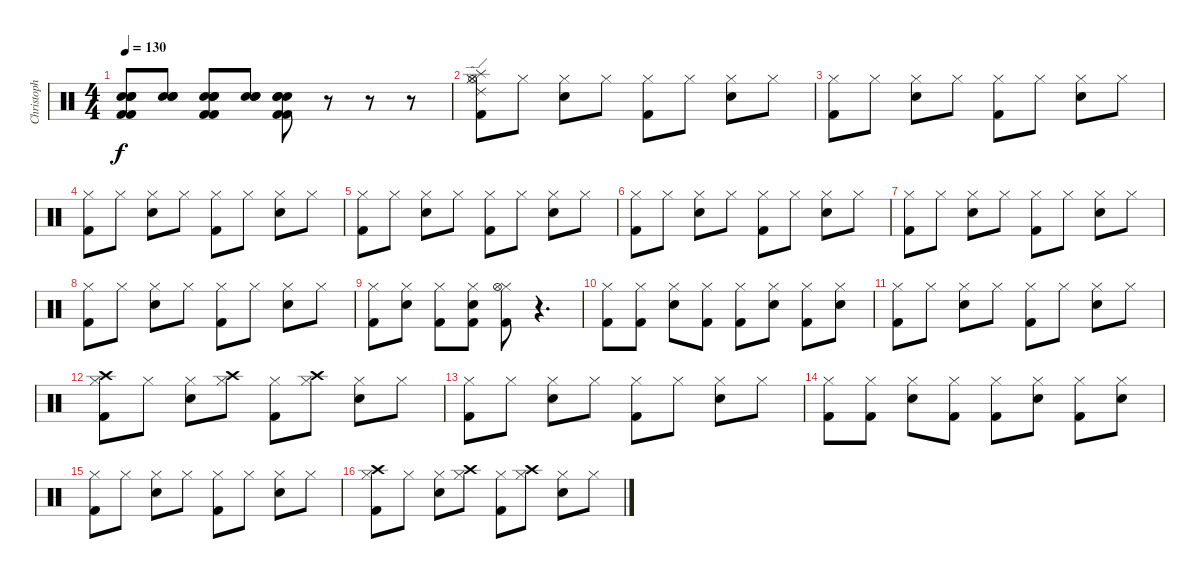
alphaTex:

\track ("Christoph Schneider" "Christoph ") {instrument percussion}
\staff {score}
\articulation defaults
\ts (4 4)
\tempo 130
\clef neutral
\ks c
("Electric Snare (hit)" "Electric Snare (hit)" "Electric Snare (hit)" "Kick (hit) 2" "Kick (hit) 2").8{dy f} ("Electric Snare (hit)" "Electric Snare (hit)" "Electric Snare (hit)").8 ("Electric Snare (hit)" "Electric Snare (hit)" "Electric Snare (hit)" "Kick (hit) 2" "Kick (hit) 2").8 ("Electric Snare (hit)" "Electric Snare (hit)" "Electric Snare (hit)").8 ("Electric Snare (hit)" "Electric Snare (hit)" "Snare (hit) 2" "Kick (hit) 2" "Kick (hit) 2").8 r.8 r.8 r.8 |
("Hi-Hat (closed)" "Splash (hit)" "Ride (edge) 2" "Hi-Hat (open)" "Kick (hit) 2").8 "Hi-Hat (closed)".8 ("Hi-Hat (closed)" "Electric Snare (hit)").8 "Hi-Hat (closed)".8 ("Hi-Hat (closed)" "Kick (hit) 2").8 "Hi-Hat (closed)".8 ("Hi-Hat (closed)" "Electric Snare (hit)").8 "Hi-Hat (closed)".8 |
("Hi-Hat (closed)" "Kick (hit) 2").8 "Hi-Hat (closed)".8 ("Hi-Hat (closed)" "Electric Snare (hit)").8 "Hi-Hat (closed)".8 ("Hi-Hat (closed)" "Kick (hit) 2").8 "Hi-Hat (closed)".8 ("Hi-Hat (closed)" "Electric Snare (hit)").8 "Hi-Hat (closed)".8 |
("Hi-Hat (closed)" "Kick (hit) 2").8 "Hi-Hat (closed)".8 ("Hi-Hat (closed)" "Electric Snare (hit)").8 "Hi-Hat (closed)".8 ("Hi-Hat (closed)" "Kick (hit) 2").8 "Hi-Hat (closed)".8 ("Hi-Hat (closed)" "Electric Snare (hit)").8 "Hi-Hat (closed)".8 |
("Hi-Hat (closed)" "Kick (hit) 2").8 "Hi-Hat (closed)".8 ("Hi-Hat (closed)" "Electric Snare (hit)").8 "Hi-Hat (closed)".8 ("Hi-Hat (closed)" "Kick (hit) 2").8 "Hi-Hat (closed)".8 ("Hi-Hat (closed)" "Electric Snare (hit)").8 "Hi-Hat (closed)".8 |
("Hi-Hat (closed)" "Kick (hit) 2").8 "Hi-Hat (closed)".8 ("Hi-Hat (closed)" "Electric Snare (hit)").8 "Hi-Hat (closed)".8 ("Hi-Hat (closed)" "Kick (hit) 2").8 "Hi-Hat (closed)".8 ("Hi-Hat (closed)" "Electric Snare (hit)").8 "Hi-Hat (closed)".8 |
("Hi-Hat (closed)" "Kick (hit) 2").8 "Hi-Hat (closed)".8 ("Hi-Hat (closed)" "Electric Snare (hit)").8 "Hi-Hat (closed)".8 ("Hi-Hat (closed)" "Kick (hit) 2").8 "Hi-Hat (closed)".8 ("Hi-Hat (closed)" "Electric Snare (hit)").8 "Hi-Hat (closed)".8 |
("Hi-Hat (closed)" "Kick (hit) 2").8 "Hi-Hat (closed)".8 ("Hi-Hat (closed)" "Electric Snare (hit)").8 "Hi-Hat (closed)".8 ("Hi-Hat (closed)" "Kick (hit) 2").8 "Hi-Hat (closed)".8 ("Hi-Hat (closed)" "Electric Snare (hit)").8 "Hi-Hat (closed)".8 |
("Hi-Hat (closed)" "Kick (hit) 2").8 ("Hi-Hat (closed)" "Electric Snare (hit)").8 ("Hi-Hat (closed)" "Kick (hit) 2").8 ("Hi-Hat (closed)" "Electric Snare (hit)" "Kick (hit) 2").8 ("Hi-Hat (closed)" "Hi-Hat (open)" "Kick (hit) 2").8 r.4{d} |
("Hi-Hat (closed)" "Kick (hit) 2").8 ("Hi-Hat (closed)" "Kick (hit) 2").8 ("Hi-Hat (closed)" "Electric Snare (hit)").8 ("Hi-Hat (closed)" "Kick (hit) 2").8 ("Hi-Hat (closed)" "Kick (hit) 2").8 ("Hi-Hat (closed)" "Electric Snare (hit)").8 ("Hi-Hat (closed)" "Kick (hit) 2").8 ("Hi-Hat (closed)" "Electric Snare (hit)").8 |
("Hi-Hat (closed)" "Kick (hit) 2").8 "Hi-Hat (closed)".8 ("Hi-Hat (closed)" "Electric Snare (hit)").8 "Hi-Hat (closed)".8 ("Hi-Hat (closed)" "Kick (hit) 2").8 "Hi-Hat (closed)".8 ("Hi-Hat (closed)" "Electric Snare (hit)").8 "Hi-Hat (closed)".8 |
("Hi-Hat (closed)" "Crash high (hit)" "Kick (hit) 2").8 "Hi-Hat (closed)".8 ("Hi-Hat (closed)" "Electric Snare (hit)").8 ("Hi-Hat (closed)" "Crash high (hit)").8 ("Hi-Hat (closed)" "Kick (hit) 2").8 ("Hi-Hat (closed)" "Crash high (hit)").8 ("Hi-Hat (closed)" "Electric Snare (hit)").8 "Hi-Hat (closed)".8 |
("Hi-Hat (closed)" "Kick (hit) 2").8 "Hi-Hat (closed)".8 ("Hi-Hat (closed)" "Electric Snare (hit)").8 "Hi-Hat (closed)".8 ("Hi-Hat (closed)" "Kick (hit) 2").8 "Hi-Hat (closed)".8 ("Hi-Hat (closed)" "Electric Snare (hit)").8 "Hi-Hat (closed)".8 |
("Hi-Hat (closed)" "Kick (hit) 2").8 ("Hi-Hat (closed)" "Kick (hit) 2").8 ("Hi-Hat (closed)" "Electric Snare (hit)").8 ("Hi-Hat (closed)" "Kick (hit) 2").8 ("Hi-Hat (closed)" "Kick (hit) 2").8 ("Hi-Hat (closed)" "Electric Snare (hit)").8 ("Hi-Hat (closed)" "Kick (hit) 2").8 ("Hi-Hat (closed)" "Electric Snare (hit)").8 |
("Hi-Hat (closed)" "Kick (hit) 2").8 "Hi-Hat (closed)".8 ("Hi-Hat (closed)" "Electric Snare (hit)").8 "Hi-Hat (closed)".8 ("Hi-Hat (closed)" "Kick (hit) 2").8 "Hi-Hat (closed)".8 ("Hi-Hat (closed)" "Electric Snare (hit)").8 "Hi-Hat (closed)".8 |
("Hi-Hat (closed)" "Crash high (hit)" "Kick (hit) 2").8 "Hi-Hat (closed)".8 ("Hi-Hat (closed)" "Electric Snare (hit)").8 ("Hi-Hat (closed)" "Crash high (hit)").8 ("Hi-Hat (closed)" "Kick (hit) 2").8 ("Hi-Hat (closed)" "Crash high (hit)").8 ("Hi-Hat (closed)" "Electric Snare (hit)").8 "Hi-Hat (closed)".8
